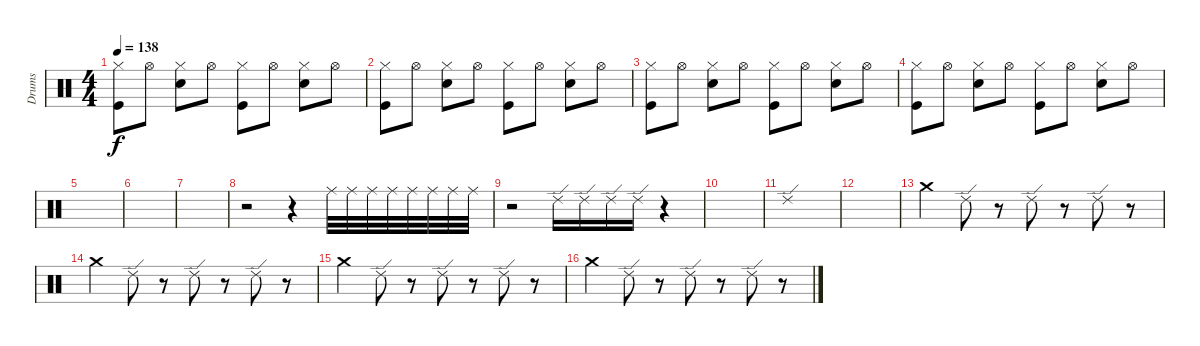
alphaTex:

\track ("Drums" "Drums") {instrument percussion}
\staff {score}
\articulation defaults
\ts (4 4)
\tempo 138
\clef neutral
\ks c
("Hi-Hat (closed)" "Kick (hit)").8{dy f} "Hi-Hat (open)".8 ("Hi-Hat (closed)" "Electric Snare (hit)").8 "Hi-Hat (open)".8 ("Hi-Hat (closed)" "Kick (hit)").8 "Hi-Hat (open)".8 ("Hi-Hat (closed)" "Electric Snare (hit)").8 "Hi-Hat (open)".8 |
("Hi-Hat (closed)" "Kick (hit)").8 "Hi-Hat (open)".8 ("Hi-Hat (closed)" "Electric Snare (hit)").8 "Hi-Hat (open)".8 ("Hi-Hat (closed)" "Kick (hit)").8 "Hi-Hat (open)".8 ("Hi-Hat (closed)" "Electric Snare (hit)").8 "Hi-Hat (open)".8 |
("Hi-Hat (closed)" "Kick (hit)").8 "Hi-Hat (open)".8 ("Hi-Hat (closed)" "Electric Snare (hit)").8 "Hi-Hat (open)".8 ("Hi-Hat (closed)" "Kick (hit)").8 "Hi-Hat (open)".8 ("Hi-Hat (closed)" "Electric Snare (hit)").8 "Hi-Hat (open)".8 |
("Hi-Hat (closed)" "Kick (hit)").8 "Hi-Hat (open)".8 ("Hi-Hat (closed)" "Electric Snare (hit)").8 "Hi-Hat (open)".8 ("Hi-Hat (closed)" "Kick (hit)").8 "Hi-Hat (open)".8 ("Hi-Hat (closed)" "Electric Snare (hit)").8 "Hi-Hat (open)".8 |
|
|
|
r.2 r.4 "Ride (middle)".32 "Ride (middle)".32 "Ride (middle)".32 "Ride (middle)".32 "Ride (middle)".32 "Ride (middle)".32 "Ride (middle)".32 "Ride (middle)".32 |
r.2 "Ride (edge) 2".16 "Ride (edge) 2".16 "Ride (edge) 2".16 "Ride (edge) 2".16 r.4 |
|
"Ride (edge) 2".1 |
|
"Crash medium (hit)".4 "Ride (edge) 2".8 r.8 "Ride (edge) 2".8 r.8 "Ride (edge) 2".8 r.8 |
"Crash medium (hit)".4 "Ride (edge) 2".8 r.8 "Ride (edge) 2".8 r.8 "Ride (edge) 2".8 r.8 |
"Crash medium (hit)".4 "Ride (edge) 2".8 r.8 "Ride (edge) 2".8 r.8 "Ride (edge) 2".8 r.8 |
"Crash medium (hit)".4 "Ride (edge) 2".8 r.8 "Ride (edge) 2".8 r.8 "Ride (edge) 2".8 r.8
